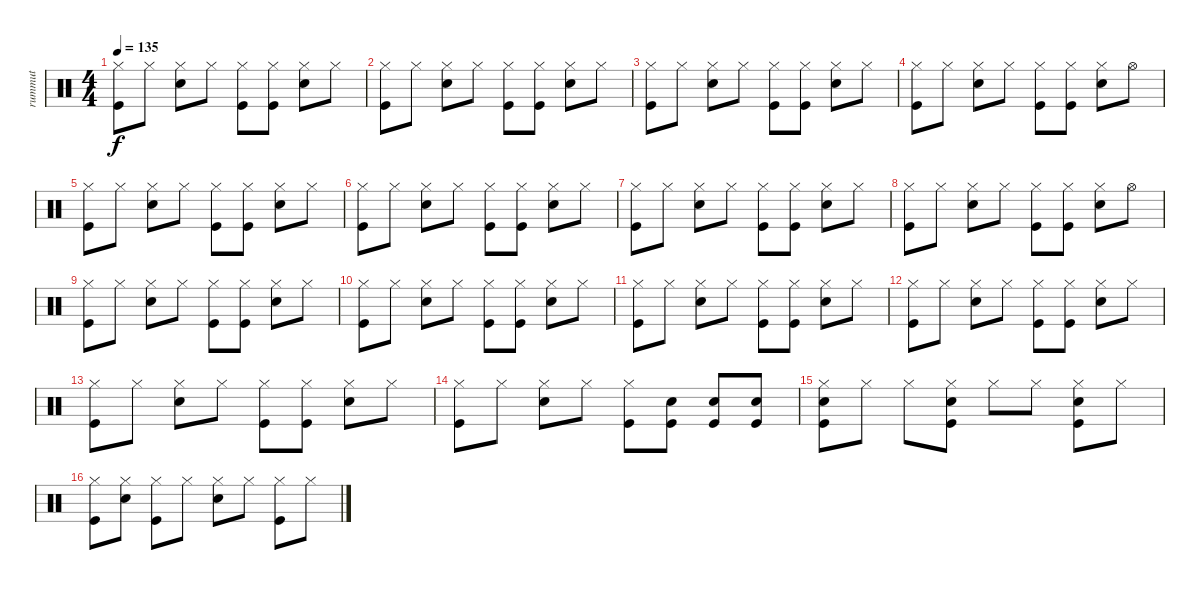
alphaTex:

\track ("rummut" "rummut") {instrument percussion}
\staff {score}
\articulation defaults
\ts (4 4)
\tempo 135
\clef neutral
\ks c
("Hi-Hat (closed)" "Kick (hit)").8{dy f} "Hi-Hat (closed)".8 ("Hi-Hat (closed)" "Snare (hit) 2").8 "Hi-Hat (closed)".8 ("Hi-Hat (closed)" "Kick (hit)").8 ("Hi-Hat (closed)" "Kick (hit)").8 ("Hi-Hat (closed)" "Snare (hit) 2").8 "Hi-Hat (closed)".8 |
("Hi-Hat (closed)" "Kick (hit)").8 "Hi-Hat (closed)".8 ("Hi-Hat (closed)" "Snare (hit) 2").8 "Hi-Hat (closed)".8 ("Hi-Hat (closed)" "Kick (hit)").8 ("Hi-Hat (closed)" "Kick (hit)").8 ("Hi-Hat (closed)" "Snare (hit) 2").8 "Hi-Hat (closed)".8 |
("Hi-Hat (closed)" "Kick (hit)").8 "Hi-Hat (closed)".8 ("Hi-Hat (closed)" "Snare (hit) 2").8 "Hi-Hat (closed)".8 ("Hi-Hat (closed)" "Kick (hit)").8 ("Hi-Hat (closed)" "Kick (hit)").8 ("Hi-Hat (closed)" "Snare (hit) 2").8 "Hi-Hat (closed)".8 |
("Hi-Hat (closed)" "Kick (hit)").8 "Hi-Hat (closed)".8 ("Hi-Hat (closed)" "Snare (hit) 2").8 "Hi-Hat (closed)".8 ("Hi-Hat (closed)" "Kick (hit)").8 ("Hi-Hat (closed)" "Kick (hit)").8 ("Hi-Hat (closed)" "Snare (hit) 2").8 "Hi-Hat (open)".8 |
("Hi-Hat (closed)" "Kick (hit)").8 "Hi-Hat (closed)".8 ("Hi-Hat (closed)" "Snare (hit) 2").8 "Hi-Hat (closed)".8 ("Hi-Hat (closed)" "Kick (hit)").8 ("Hi-Hat (closed)" "Kick (hit)").8 ("Hi-Hat (closed)" "Snare (hit) 2").8 "Hi-Hat (closed)".8 |
("Hi-Hat (closed)" "Kick (hit)").8 "Hi-Hat (closed)".8 ("Hi-Hat (closed)" "Snare (hit) 2").8 "Hi-Hat (closed)".8 ("Hi-Hat (closed)" "Kick (hit)").8 ("Hi-Hat (closed)" "Kick (hit)").8 ("Hi-Hat (closed)" "Snare (hit) 2").8 "Hi-Hat (closed)".8 |
("Hi-Hat (closed)" "Kick (hit)").8 "Hi-Hat (closed)".8 ("Hi-Hat (closed)" "Snare (hit) 2").8 "Hi-Hat (closed)".8 ("Hi-Hat (closed)" "Kick (hit)").8 ("Hi-Hat (closed)" "Kick (hit)").8 ("Hi-Hat (closed)" "Snare (hit) 2").8 "Hi-Hat (closed)".8 |
("Hi-Hat (closed)" "Kick (hit)").8 "Hi-Hat (closed)".8 ("Hi-Hat (closed)" "Snare (hit) 2").8 "Hi-Hat (closed)".8 ("Hi-Hat (closed)" "Kick (hit)").8 ("Hi-Hat (closed)" "Kick (hit)").8 ("Hi-Hat (closed)" "Snare (hit) 2").8 "Hi-Hat (open)".8 |
("Hi-Hat (closed)" "Kick (hit)").8 "Hi-Hat (closed)".8 ("Hi-Hat (closed)" "Snare (hit) 2").8 "Hi-Hat (closed)".8 ("Hi-Hat (closed)" "Kick (hit)").8 ("Hi-Hat (closed)" "Kick (hit)").8 ("Hi-Hat (closed)" "Snare (hit) 2").8 "Hi-Hat (closed)".8 |
("Hi-Hat (closed)" "Kick (hit)").8 "Hi-Hat (closed)".8 ("Hi-Hat (closed)" "Snare (hit) 2").8 "Hi-Hat (closed)".8 ("Hi-Hat (closed)" "Kick (hit)").8 ("Hi-Hat (closed)" "Kick (hit)").8 ("Hi-Hat (closed)" "Snare (hit) 2").8 "Hi-Hat (closed)".8 |
("Hi-Hat (closed)" "Kick (hit)").8 "Hi-Hat (closed)".8 ("Hi-Hat (closed)" "Snare (hit) 2").8 "Hi-Hat (closed)".8 ("Hi-Hat (closed)" "Kick (hit)").8 ("Hi-Hat (closed)" "Kick (hit)").8 ("Hi-Hat (closed)" "Snare (hit) 2").8 "Hi-Hat (closed)".8 |
("Hi-Hat (closed)" "Kick (hit)").8 "Hi-Hat (closed)".8 ("Hi-Hat (closed)" "Snare (hit) 2").8 "Hi-Hat (closed)".8 ("Hi-Hat (closed)" "Kick (hit)").8 ("Hi-Hat (closed)" "Kick (hit)").8 ("Hi-Hat (closed)" "Snare (hit) 2").8 "Hi-Hat (closed)".8 |
("Hi-Hat (closed)" "Kick (hit)").8 "Hi-Hat (closed)".8 ("Hi-Hat (closed)" "Snare (hit) 2").8 "Hi-Hat (closed)".8 ("Hi-Hat (closed)" "Kick (hit)").8 ("Hi-Hat (closed)" "Kick (hit)").8 ("Hi-Hat (closed)" "Snare (hit) 2").8 "Hi-Hat (closed)".8 |
("Hi-Hat (closed)" "Kick (hit)").8 "Hi-Hat (closed)".8 ("Hi-Hat (closed)" "Snare (hit) 2").8 "Hi-Hat (closed)".8 ("Hi-Hat (closed)" "Kick (hit)").8 ("Snare (hit) 2" "Kick (hit)").8 ("Snare (hit) 2" "Kick (hit)").8 ("Snare (hit) 2" "Kick (hit)").8 |
("Hi-Hat (closed)" "Snare (hit) 2" "Kick (hit)").8 "Hi-Hat (closed)".8 "Hi-Hat (closed)".8 ("Hi-Hat (closed)" "Snare (hit) 2" "Kick (hit)").8 "Hi-Hat (closed)".8 "Hi-Hat (closed)".8 ("Hi-Hat (closed)" "Snare (hit) 2" "Kick (hit)").8 "Hi-Hat (closed)".8 |
("Hi-Hat (closed)" "Kick (hit)").8 ("Hi-Hat (closed)" "Snare (hit) 2").8 ("Hi-Hat (closed)" "Kick (hit)").8 "Hi-Hat (closed)".8 ("Hi-Hat (closed)" "Snare (hit) 2").8 "Hi-Hat (closed)".8 ("Hi-Hat (closed)" "Kick (hit)").8 "Hi-Hat (closed)".8
